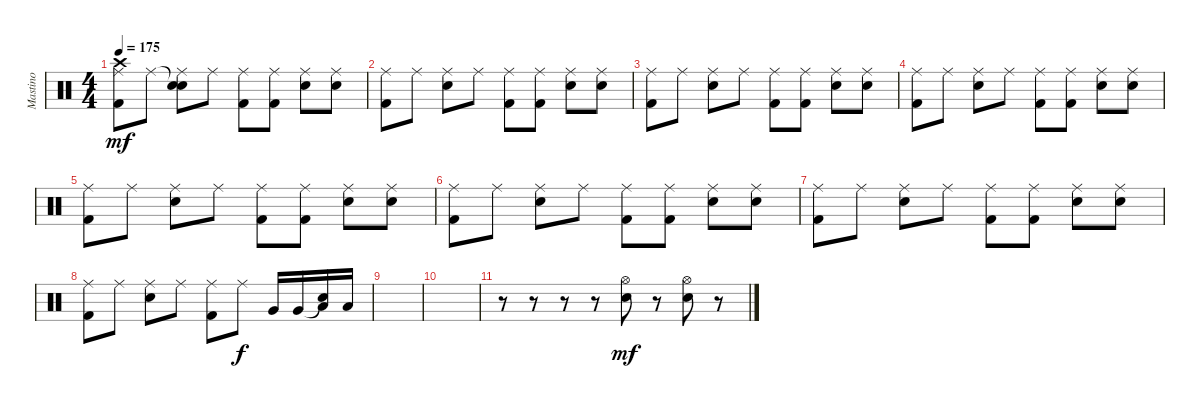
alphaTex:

\track ("Mastino" "Mastino") {instrument percussion}
\staff {score}
\articulation defaults
\ts (4 4)
\tempo 175
\clef neutral
\ks c
("Crash high (hit)" "Ride (middle)" "Kick (hit) 2").8{dy mf} "Ride (middle)".8 ("Snare (hit)"{t} "Ride (middle)" "Electric Snare (hit)").8 "Ride (middle)".8 ("Ride (middle)" "Kick (hit) 2").8 ("Ride (middle)" "Kick (hit) 2").8 ("Ride (middle)" "Electric Snare (hit)").8 ("Ride (middle)" "Electric Snare (hit)").8 |
("Ride (middle)" "Kick (hit) 2").8 "Ride (middle)".8 ("Ride (middle)" "Electric Snare (hit)").8 "Ride (middle)".8 ("Ride (middle)" "Kick (hit) 2").8 ("Ride (middle)" "Kick (hit) 2").8 ("Ride (middle)" "Electric Snare (hit)").8 ("Ride (middle)" "Electric Snare (hit)").8 |
("Ride (middle)" "Kick (hit) 2").8 "Ride (middle)".8 ("Ride (middle)" "Electric Snare (hit)").8 "Ride (middle)".8 ("Ride (middle)" "Kick (hit) 2").8 ("Ride (middle)" "Kick (hit) 2").8 ("Ride (middle)" "Electric Snare (hit)").8 ("Ride (middle)" "Electric Snare (hit)").8 |
("Ride (middle)" "Kick (hit) 2").8 "Ride (middle)".8 ("Ride (middle)" "Electric Snare (hit)").8 "Ride (middle)".8 ("Ride (middle)" "Kick (hit) 2").8 ("Ride (middle)" "Kick (hit) 2").8 ("Ride (middle)" "Electric Snare (hit)").8 ("Ride (middle)" "Electric Snare (hit)").8 |
("Ride (middle)" "Kick (hit) 2").8 "Ride (middle)".8 ("Ride (middle)" "Electric Snare (hit)").8 "Ride (middle)".8 ("Ride (middle)" "Kick (hit) 2").8 ("Ride (middle)" "Kick (hit) 2").8 ("Ride (middle)" "Electric Snare (hit)").8 ("Ride (middle)" "Electric Snare (hit)").8 |
("Ride (middle)" "Kick (hit) 2").8 "Ride (middle)".8 ("Ride (middle)" "Electric Snare (hit)").8 "Ride (middle)".8 ("Ride (middle)" "Kick (hit) 2").8 ("Ride (middle)" "Kick (hit) 2").8 ("Ride (middle)" "Electric Snare (hit)").8 ("Ride (middle)" "Electric Snare (hit)").8 |
("Ride (middle)" "Kick (hit) 2").8 "Ride (middle)".8 ("Ride (middle)" "Electric Snare (hit)").8 "Ride (middle)".8 ("Ride (middle)" "Kick (hit) 2").8 ("Ride (middle)" "Kick (hit) 2").8 ("Ride (middle)" "Electric Snare (hit)").8 ("Ride (middle)" "Electric Snare (hit)").8 |
("Ride (middle)" "Kick (hit) 2").8 "Ride (middle)".8 ("Ride (middle)" "Electric Snare (hit)").8 "Ride (middle)".8 ("Ride (middle)" "Kick (hit) 2").8 "Ride (middle)".8{dy f} "Very Low Tom (hit)".16 "Very Low Tom (hit)".16 ("Snare (hit)"{t} "Low Tom (hit)").16 "Low Tom (hit)".16 |
|
|
r.8 r.8 r.8 r.8 ("Hi-Hat (open)" "Electric Snare (hit)").8{dy mf} r.8 ("Hi-Hat (open)" "Electric Snare (hit)").8 r.8
